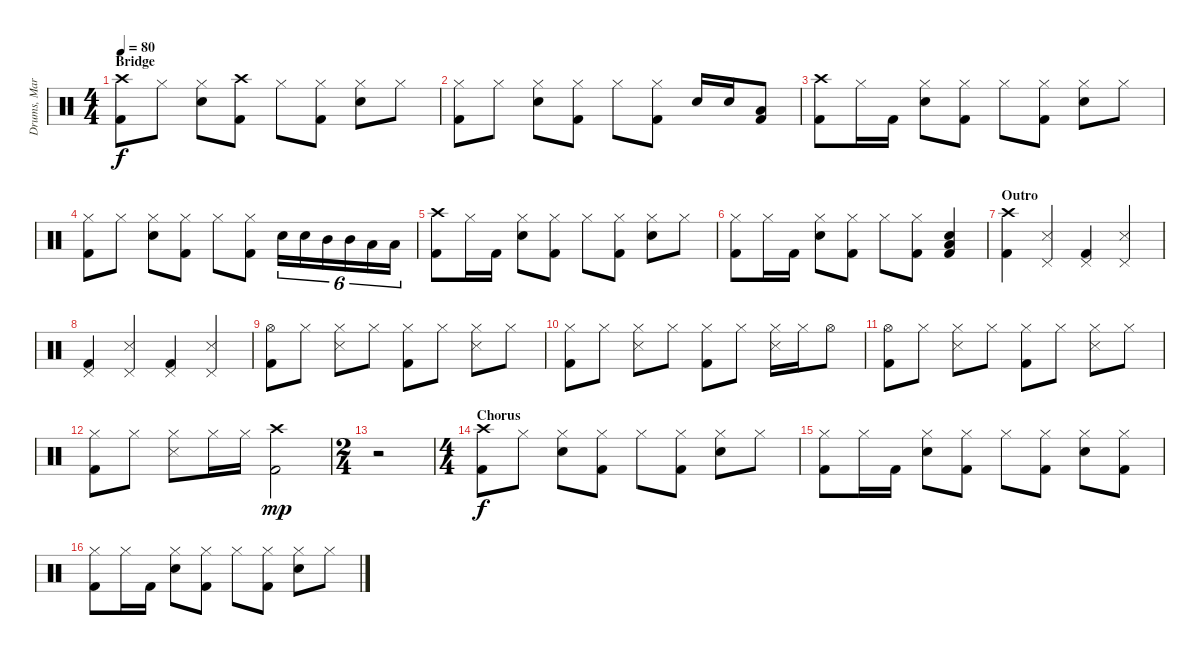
\track ("Drums, Martina" "Drums, Mar") {instrument percussion}
\staff {score}
\articulation defaults
\ts (4 4)
\section ("" "Bridge")
\tempo 80
\clef neutral
\ks c
("Crash high (hit)" "Kick (hit) 2").8{dy f} "Hi-Hat (closed)".8 ("Hi-Hat (closed)" "Electric Snare (hit)").8 ("Crash high (hit)" "Kick (hit) 2").8 "Hi-Hat (closed)".8 ("Hi-Hat (closed)" "Kick (hit) 2").8 ("Hi-Hat (closed)" "Electric Snare (hit)").8 "Hi-Hat (closed)".8 |
("Hi-Hat (closed)" "Kick (hit) 2").8 "Hi-Hat (closed)".8 ("Hi-Hat (closed)" "Electric Snare (hit)").8 ("Hi-Hat (closed)" "Kick (hit) 2").8 "Hi-Hat (closed)".8 ("Hi-Hat (closed)" "Kick (hit) 2").8 "Electric Snare (hit)".16 "Electric Snare (hit)".16 ("Low Tom (hit)" "Kick (hit) 2").8 |
("Crash high (hit)" "Kick (hit) 2").8 "Hi-Hat (closed)".16 "Kick (hit) 2".16 ("Hi-Hat (closed)" "Electric Snare (hit)").8 ("Hi-Hat (closed)" "Kick (hit) 2").8 "Hi-Hat (closed)".8 ("Hi-Hat (closed)" "Kick (hit) 2").8 ("Hi-Hat (closed)" "Electric Snare (hit)").8 "Hi-Hat (closed)".8 |
("Hi-Hat (closed)" "Kick (hit) 2").8 "Hi-Hat (closed)".8 ("Hi-Hat (closed)" "Electric Snare (hit)").8 ("Hi-Hat (closed)" "Kick (hit) 2").8 "Hi-Hat (closed)".8 ("Hi-Hat (closed)" "Kick (hit) 2").8 "Electric Snare (hit)".16{tu (6 4)} "Electric Snare (hit)".16{tu (6 4)} "Mid Tom (hit)".16{tu (6 4)} "Mid Tom (hit)".16{tu (6 4)} "Low Tom (hit)".16{tu (6 4)} "Low Tom (hit)".16{tu (6 4)} |
("Crash high (hit)" "Kick (hit) 2").8 "Hi-Hat (closed)".16 "Kick (hit) 2".16 ("Hi-Hat (closed)" "Electric Snare (hit)").8 ("Hi-Hat (closed)" "Kick (hit) 2").8 "Hi-Hat (closed)".8 ("Hi-Hat (closed)" "Kick (hit) 2").8 ("Hi-Hat (closed)" "Electric Snare (hit)").8 "Hi-Hat (closed)".8 |
("Hi-Hat (closed)" "Kick (hit) 2").8 "Hi-Hat (closed)".16 "Kick (hit) 2".16 ("Hi-Hat (closed)" "Electric Snare (hit)").8 ("Hi-Hat (closed)" "Kick (hit) 2").8 "Hi-Hat (closed)".8 ("Hi-Hat (closed)" "Kick (hit) 2").8 ("Electric Snare (hit)" "Low Tom (hit)" "Kick (hit) 2").4 |
\section ("" "Outro")
("Crash high (hit)" "Kick (hit) 2").4 ("Pedal Hi-Hat (hit)" "Snare (side stick) 3").4 ("Pedal Hi-Hat (hit)" "Kick (hit) 2").4 ("Pedal Hi-Hat (hit)" "Snare (side stick) 3").4 |
("Pedal Hi-Hat (hit)" "Kick (hit) 2").4 ("Pedal Hi-Hat (hit)" "Snare (side stick) 3").4 ("Pedal Hi-Hat (hit)" "Kick (hit) 2").4 ("Pedal Hi-Hat (hit)" "Snare (side stick) 3").4 |
("Hi-Hat (open)" "Kick (hit) 2").8 "Hi-Hat (closed)".8 ("Hi-Hat (closed)" "Snare (side stick) 3").8 "Hi-Hat (closed)".8 ("Hi-Hat (closed)" "Kick (hit) 2").8 "Hi-Hat (closed)".8 ("Hi-Hat (closed)" "Snare (side stick) 3").8 "Hi-Hat (closed)".8 |
("Hi-Hat (closed)" "Kick (hit) 2").8 "Hi-Hat (closed)".8 ("Hi-Hat (closed)" "Snare (side stick) 3").8 "Hi-Hat (closed)".8 ("Hi-Hat (closed)" "Kick (hit) 2").8 "Hi-Hat (closed)".8 ("Hi-Hat (closed)" "Snare (side stick) 3").16 "Hi-Hat (closed)".16 "Hi-Hat (open)".8 |
("Hi-Hat (open)" "Kick (hit) 2").8 "Hi-Hat (closed)".8 ("Hi-Hat (closed)" "Snare (side stick) 3").8 "Hi-Hat (closed)".8 ("Hi-Hat (closed)" "Kick (hit) 2").8 "Hi-Hat (closed)".8 ("Hi-Hat (closed)" "Snare (side stick) 3").8 "Hi-Hat (closed)".8 |
("Hi-Hat (closed)" "Kick (hit) 2").8 "Hi-Hat (closed)".8 ("Hi-Hat (closed)" "Snare (side stick) 3").8 "Hi-Hat (closed)".16 "Hi-Hat (closed)".16 ("Crash high (hit)" "Kick (hit) 2").2{dy mp} |
\ts (2 4)
r.2 |
\ts (4 4)
\section ("" "Chorus")
("Crash high (hit)" "Kick (hit) 2").8{dy f} "Hi-Hat (closed)".8 ("Hi-Hat (closed)" "Electric Snare (hit)").8 ("Hi-Hat (closed)" "Kick (hit) 2").8 "Hi-Hat (closed)".8 ("Hi-Hat (closed)" "Kick (hit) 2").8 ("Hi-Hat (closed)" "Electric Snare (hit)").8 "Hi-Hat (closed)".8 |
("Hi-Hat (closed)" "Kick (hit) 2").8 "Hi-Hat (closed)".16 "Kick (hit) 2".16 ("Hi-Hat (closed)" "Electric Snare (hit)").8 ("Hi-Hat (closed)" "Kick (hit) 2").8 "Hi-Hat (closed)".8 ("Hi-Hat (closed)" "Kick (hit) 2").8 ("Hi-Hat (closed)" "Electric Snare (hit)").8 ("Hi-Hat (closed)" "Kick (hit) 2").8 |
("Hi-Hat (closed)" "Kick (hit) 2").8 "Hi-Hat (closed)".16 "Kick (hit) 2".16 ("Hi-Hat (closed)" "Electric Snare (hit)").8 ("Hi-Hat (closed)" "Kick (hit) 2").8 "Hi-Hat (closed)".8 ("Hi-Hat (closed)" "Kick (hit) 2").8 ("Hi-Hat (closed)" "Electric Snare (hit)").8 "Hi-Hat (closed)".8
